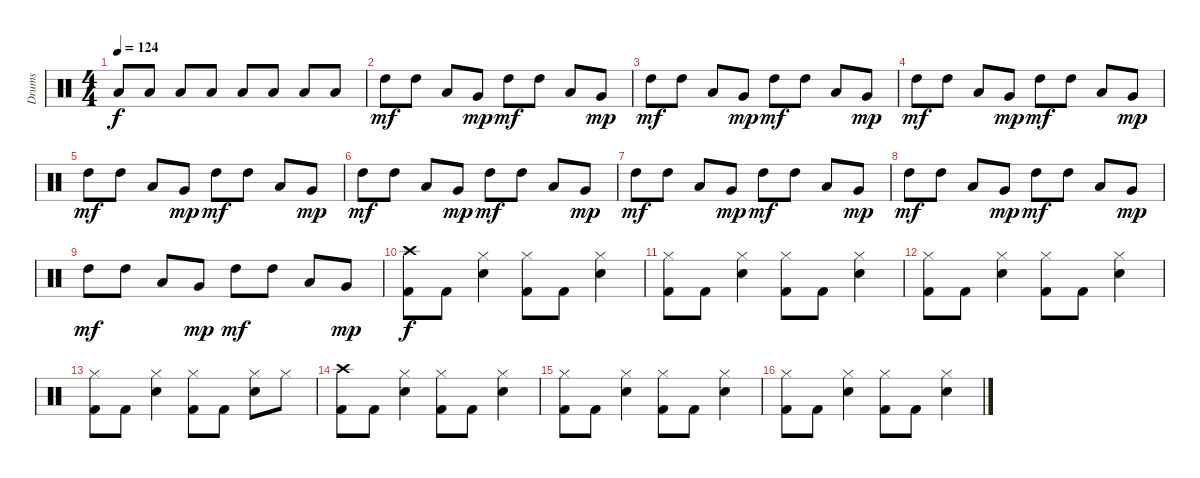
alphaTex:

\track ("Drums" "Drums") {instrument percussion}
\staff {score}
\articulation defaults
\ts (4 4)
\tempo 124
\clef neutral
\ks c "Low Tom (hit)".8{dy f volume 13} "Low Tom (hit)".8 "Low Tom (hit)".8 "Low Tom (hit)".8 "Low Tom (hit)".8 "Low Tom (hit)".8 "Low Tom (hit)".8 "Low Tom (hit)".8
|
"High Tom (hit)".8{dy mf} "High Tom (hit)".8 "Low Tom (hit)".8 "Very Low Tom (hit)".8{dy mp} "High Tom (hit)".8{dy mf} "High Tom (hit)".8 "Low Tom (hit)".8 "Very Low Tom (hit)".8{dy mp} |
"High Tom (hit)".8{dy mf} "High Tom (hit)".8 "Low Tom (hit)".8 "Very Low Tom (hit)".8{dy mp} "High Tom (hit)".8{dy mf} "High Tom (hit)".8 "Low Tom (hit)".8 "Very Low Tom (hit)".8{dy mp} |
"High Tom (hit)".8{dy mf} "High Tom (hit)".8 "Low Tom (hit)".8 "Very Low Tom (hit)".8{dy mp} "High Tom (hit)".8{dy mf} "High Tom (hit)".8 "Low Tom (hit)".8 "Very Low Tom (hit)".8{dy mp} |
"High Tom (hit)".8{dy mf} "High Tom (hit)".8 "Low Tom (hit)".8 "Very Low Tom (hit)".8{dy mp} "High Tom (hit)".8{dy mf} "High Tom (hit)".8 "Low Tom (hit)".8 "Very Low Tom (hit)".8{dy mp} |
"High Tom (hit)".8{dy mf} "High Tom (hit)".8 "Low Tom (hit)".8 "Very Low Tom (hit)".8{dy mp} "High Tom (hit)".8{dy mf} "High Tom (hit)".8 "Low Tom (hit)".8 "Very Low Tom (hit)".8{dy mp} |
"High Tom (hit)".8{dy mf} "High Tom (hit)".8 "Low Tom (hit)".8 "Very Low Tom (hit)".8{dy mp} "High Tom (hit)".8{dy mf} "High Tom (hit)".8 "Low Tom (hit)".8 "Very Low Tom (hit)".8{dy mp} |
"High Tom (hit)".8{dy mf} "High Tom (hit)".8 "Low Tom (hit)".8 "Very Low Tom (hit)".8{dy mp} "High Tom (hit)".8{dy mf} "High Tom (hit)".8 "Low Tom (hit)".8 "Very Low Tom (hit)".8{dy mp} |
"High Tom (hit)".8{dy mf} "High Tom (hit)".8 "Low Tom (hit)".8 "Very Low Tom (hit)".8{dy mp} "High Tom (hit)".8{dy mf} "High Tom (hit)".8 "Low Tom (hit)".8 "Very Low Tom (hit)".8{dy mp} |
("Kick (hit) 2" "Crash high (hit)").8{dy f} "Kick (hit) 2".8 ("Snare (hit) 2" "Hi-Hat (closed)").4 ("Kick (hit) 2" "Hi-Hat (closed)").8 "Kick (hit) 2".8 ("Snare (hit) 2" "Hi-Hat (closed)").4 |
("Kick (hit) 2" "Hi-Hat (closed)").8 "Kick (hit) 2".8 ("Snare (hit) 2" "Hi-Hat (closed)").4 ("Kick (hit) 2" "Hi-Hat (closed)").8 "Kick (hit) 2".8 ("Snare (hit) 2" "Hi-Hat (closed)").4 |
("Kick (hit) 2" "Hi-Hat (closed)").8 "Kick (hit) 2".8 ("Snare (hit) 2" "Hi-Hat (closed)").4 ("Kick (hit) 2" "Hi-Hat (closed)").8 "Kick (hit) 2".8 ("Snare (hit) 2" "Hi-Hat (closed)").4 |
("Kick (hit) 2" "Hi-Hat (closed)").8 "Kick (hit) 2".8 ("Snare (hit) 2" "Hi-Hat (closed)").4 ("Kick (hit) 2" "Hi-Hat (closed)").8 "Kick (hit) 2".8 ("Snare (hit) 2" "Hi-Hat (closed)").8 "Hi-Hat (closed)".8 |
("Kick (hit) 2" "Crash high (hit)").8 "Kick (hit) 2".8 ("Snare (hit) 2" "Hi-Hat (closed)").4 ("Kick (hit) 2" "Hi-Hat (closed)").8 "Kick (hit) 2".8 ("Snare (hit) 2" "Hi-Hat (closed)").4 |
("Kick (hit) 2" "Hi-Hat (closed)").8 "Kick (hit) 2".8 ("Snare (hit) 2" "Hi-Hat (closed)").4 ("Kick (hit) 2" "Hi-Hat (closed)").8 "Kick (hit) 2".8 ("Snare (hit) 2" "Hi-Hat (closed)").4 |
("Kick (hit) 2" "Hi-Hat (closed)").8 "Kick (hit) 2".8 ("Snare (hit) 2" "Hi-Hat (closed)").4 ("Kick (hit) 2" "Hi-Hat (closed)").8 "Kick (hit) 2".8 ("Snare (hit) 2" "Hi-Hat (closed)").4
